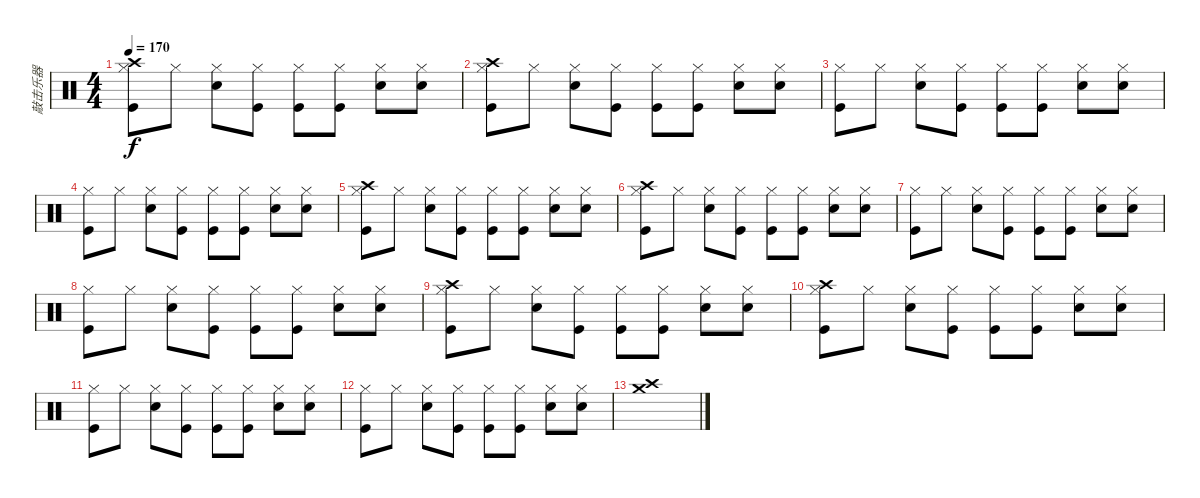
\track ("敲击乐器" "敲击乐器") {instrument percussion}
\staff {score}
\articulation defaults
\ts (4 4)
\tempo 170
\clef neutral
\ks c
("Crash high (hit)" "Hi-Hat (closed)" "Kick (hit)").8{dy f} "Hi-Hat (closed)".8 ("Hi-Hat (closed)" "Snare (hit) 2").8 ("Hi-Hat (closed)" "Kick (hit)").8 ("Hi-Hat (closed)" "Kick (hit)").8 ("Hi-Hat (closed)" "Kick (hit)").8 ("Hi-Hat (closed)" "Snare (hit) 2").8 ("Hi-Hat (closed)" "Snare (hit) 2").8 |
("Crash high (hit)" "Hi-Hat (closed)" "Kick (hit)").8 "Hi-Hat (closed)".8 ("Hi-Hat (closed)" "Snare (hit) 2").8 ("Hi-Hat (closed)" "Kick (hit)").8 ("Hi-Hat (closed)" "Kick (hit)").8 ("Hi-Hat (closed)" "Kick (hit)").8 ("Hi-Hat (closed)" "Snare (hit) 2").8 ("Hi-Hat (closed)" "Snare (hit) 2").8 |
("Hi-Hat (closed)" "Kick (hit)").8 "Hi-Hat (closed)".8 ("Hi-Hat (closed)" "Snare (hit) 2").8 ("Hi-Hat (closed)" "Kick (hit)").8 ("Hi-Hat (closed)" "Kick (hit)").8 ("Hi-Hat (closed)" "Kick (hit)").8 ("Hi-Hat (closed)" "Snare (hit) 2").8 ("Hi-Hat (closed)" "Snare (hit) 2").8 |
("Hi-Hat (closed)" "Kick (hit)").8 "Hi-Hat (closed)".8 ("Hi-Hat (closed)" "Snare (hit) 2").8 ("Hi-Hat (closed)" "Kick (hit)").8 ("Hi-Hat (closed)" "Kick (hit)").8 ("Hi-Hat (closed)" "Kick (hit)").8 ("Hi-Hat (closed)" "Snare (hit) 2").8 ("Hi-Hat (closed)" "Snare (hit) 2").8 |
("Crash high (hit)" "Hi-Hat (closed)" "Kick (hit)").8 "Hi-Hat (closed)".8 ("Hi-Hat (closed)" "Snare (hit) 2").8 ("Hi-Hat (closed)" "Kick (hit)").8 ("Hi-Hat (closed)" "Kick (hit)").8 ("Hi-Hat (closed)" "Kick (hit)").8 ("Hi-Hat (closed)" "Snare (hit) 2").8 ("Hi-Hat (closed)" "Snare (hit) 2").8 |
("Crash high (hit)" "Hi-Hat (closed)" "Kick (hit)").8 "Hi-Hat (closed)".8 ("Hi-Hat (closed)" "Snare (hit) 2").8 ("Hi-Hat (closed)" "Kick (hit)").8 ("Hi-Hat (closed)" "Kick (hit)").8 ("Hi-Hat (closed)" "Kick (hit)").8 ("Hi-Hat (closed)" "Snare (hit) 2").8 ("Hi-Hat (closed)" "Snare (hit) 2").8 |
("Hi-Hat (closed)" "Kick (hit)").8 "Hi-Hat (closed)".8 ("Hi-Hat (closed)" "Snare (hit) 2").8 ("Hi-Hat (closed)" "Kick (hit)").8 ("Hi-Hat (closed)" "Kick (hit)").8 ("Hi-Hat (closed)" "Kick (hit)").8 ("Hi-Hat (closed)" "Snare (hit) 2").8 ("Hi-Hat (closed)" "Snare (hit) 2").8 |
("Hi-Hat (closed)" "Kick (hit)").8 "Hi-Hat (closed)".8 ("Hi-Hat (closed)" "Snare (hit) 2").8 ("Hi-Hat (closed)" "Kick (hit)").8 ("Hi-Hat (closed)" "Kick (hit)").8 ("Hi-Hat (closed)" "Kick (hit)").8 ("Hi-Hat (closed)" "Snare (hit) 2").8 ("Hi-Hat (closed)" "Snare (hit) 2").8 |
("Crash high (hit)" "Hi-Hat (closed)" "Kick (hit)").8 "Hi-Hat (closed)".8 ("Hi-Hat (closed)" "Snare (hit) 2").8 ("Hi-Hat (closed)" "Kick (hit)").8 ("Hi-Hat (closed)" "Kick (hit)").8 ("Hi-Hat (closed)" "Kick (hit)").8 ("Hi-Hat (closed)" "Snare (hit) 2").8 ("Hi-Hat (closed)" "Snare (hit) 2").8 |
("Crash high (hit)" "Hi-Hat (closed)" "Kick (hit)").8 "Hi-Hat (closed)".8 ("Hi-Hat (closed)" "Snare (hit) 2").8 ("Hi-Hat (closed)" "Kick (hit)").8 ("Hi-Hat (closed)" "Kick (hit)").8 ("Hi-Hat (closed)" "Kick (hit)").8 ("Hi-Hat (closed)" "Snare (hit) 2").8 ("Hi-Hat (closed)" "Snare (hit) 2").8 |
("Hi-Hat (closed)" "Kick (hit)").8 "Hi-Hat (closed)".8 ("Hi-Hat (closed)" "Snare (hit) 2").8 ("Hi-Hat (closed)" "Kick (hit)").8 ("Hi-Hat (closed)" "Kick (hit)").8 ("Hi-Hat (closed)" "Kick (hit)").8 ("Hi-Hat (closed)" "Snare (hit) 2").8 ("Hi-Hat (closed)" "Snare (hit) 2").8 |
("Hi-Hat (closed)" "Kick (hit)").8 "Hi-Hat (closed)".8 ("Hi-Hat (closed)" "Snare (hit) 2").8 ("Hi-Hat (closed)" "Kick (hit)").8 ("Hi-Hat (closed)" "Kick (hit)").8 ("Hi-Hat (closed)" "Kick (hit)").8 ("Hi-Hat (closed)" "Snare (hit) 2").8 ("Hi-Hat (closed)" "Snare (hit) 2").8 |
("Crash high (hit)" "Crash medium (hit)").1
